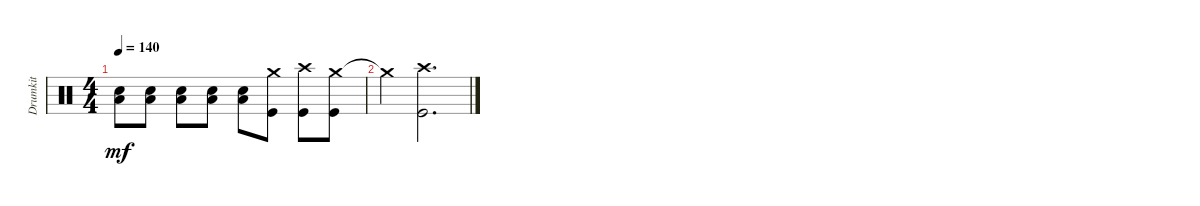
\track ("Drumkit" "Drumkit") {instrument percussion}
\staff {score}
\articulation defaults
\ts (4 4)
\tempo 140
\clef neutral
\ks c
("Snare (hit) 2" "Low Tom (hit)").8{dy mf} ("Snare (hit) 2" "Low Tom (hit)").8 ("Snare (hit) 2" "Low Tom (hit)").8 ("Snare (hit) 2" "Low Tom (hit)").8 ("Snare (hit) 2" "Low Tom (hit)").8 ("Crash medium (hit)" "Kick (hit)").8 ("Crash high (hit)" "Kick (hit)").8 ("Crash medium (hit)" "Kick (hit)").8 |
"Crash medium (hit)"{t}.4 ("Crash high (hit)" "Kick (hit)").2{d}
